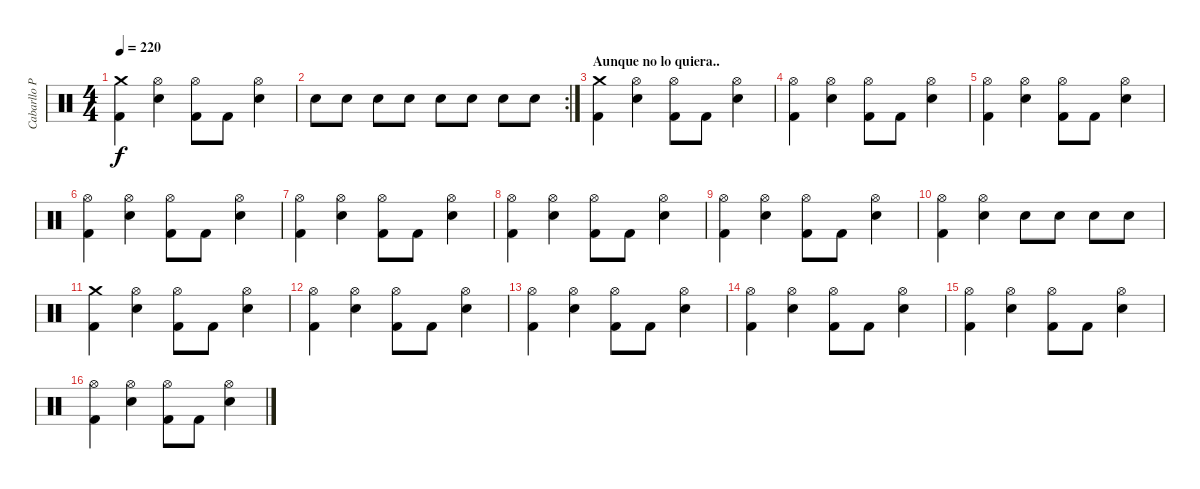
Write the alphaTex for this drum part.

\track ("Cabarllo Pepe" "Cabarllo P") {instrument percussion}
\staff {score}
\articulation defaults
\ts (4 4)
\tempo 220
\clef neutral
\ks c
("Crash medium (hit)" "Kick (hit) 2").4{dy f} ("Hi-Hat (open)" "Electric Snare (hit)").4 ("Hi-Hat (open)" "Kick (hit) 2").8 "Kick (hit) 2".8 ("Hi-Hat (open)" "Electric Snare (hit)").4 |
\rc 2 "Electric Snare (hit)".8 "Electric Snare (hit)".8 "Electric Snare (hit)".8 "Electric Snare (hit)".8 "Electric Snare (hit)".8 "Electric Snare (hit)".8 "Electric Snare (hit)".8 "Electric Snare (hit)".8
|
\section ("" "Aunque no lo quiera..")
("Crash medium (hit)" "Kick (hit) 2").4 ("Hi-Hat (open)" "Electric Snare (hit)").4 ("Hi-Hat (open)" "Kick (hit) 2").8 "Kick (hit) 2".8 ("Hi-Hat (open)" "Electric Snare (hit)").4 |
("Hi-Hat (open)" "Kick (hit) 2").4 ("Hi-Hat (open)" "Electric Snare (hit)").4 ("Hi-Hat (open)" "Kick (hit) 2").8 "Kick (hit) 2".8 ("Hi-Hat (open)" "Electric Snare (hit)").4 |
("Hi-Hat (open)" "Kick (hit) 2").4 ("Hi-Hat (open)" "Electric Snare (hit)").4 ("Hi-Hat (open)" "Kick (hit) 2").8 "Kick (hit) 2".8 ("Hi-Hat (open)" "Electric Snare (hit)").4 |
("Hi-Hat (open)" "Kick (hit) 2").4 ("Hi-Hat (open)" "Electric Snare (hit)").4 ("Hi-Hat (open)" "Kick (hit) 2").8 "Kick (hit) 2".8 ("Hi-Hat (open)" "Electric Snare (hit)").4 |
("Hi-Hat (open)" "Kick (hit) 2").4 ("Hi-Hat (open)" "Electric Snare (hit)").4 ("Hi-Hat (open)" "Kick (hit) 2").8 "Kick (hit) 2".8 ("Hi-Hat (open)" "Electric Snare (hit)").4 |
("Hi-Hat (open)" "Kick (hit) 2").4 ("Hi-Hat (open)" "Electric Snare (hit)").4 ("Hi-Hat (open)" "Kick (hit) 2").8 "Kick (hit) 2".8 ("Hi-Hat (open)" "Electric Snare (hit)").4 |
("Hi-Hat (open)" "Kick (hit) 2").4 ("Hi-Hat (open)" "Electric Snare (hit)").4 ("Hi-Hat (open)" "Kick (hit) 2").8 "Kick (hit) 2".8 ("Hi-Hat (open)" "Electric Snare (hit)").4 |
("Hi-Hat (open)" "Kick (hit) 2").4 ("Hi-Hat (open)" "Electric Snare (hit)").4 "Electric Snare (hit)".8 "Electric Snare (hit)".8 "Electric Snare (hit)".8 "Electric Snare (hit)".8 |
("Crash medium (hit)" "Kick (hit) 2").4 ("Hi-Hat (open)" "Electric Snare (hit)").4 ("Hi-Hat (open)" "Kick (hit) 2").8 "Kick (hit) 2".8 ("Hi-Hat (open)" "Electric Snare (hit)").4 |
("Hi-Hat (open)" "Kick (hit) 2").4 ("Hi-Hat (open)" "Electric Snare (hit)").4 ("Hi-Hat (open)" "Kick (hit) 2").8 "Kick (hit) 2".8 ("Hi-Hat (open)" "Electric Snare (hit)").4 |
("Hi-Hat (open)" "Kick (hit) 2").4 ("Hi-Hat (open)" "Electric Snare (hit)").4 ("Hi-Hat (open)" "Kick (hit) 2").8 "Kick (hit) 2".8 ("Hi-Hat (open)" "Electric Snare (hit)").4 |
("Hi-Hat (open)" "Kick (hit) 2").4 ("Hi-Hat (open)" "Electric Snare (hit)").4 ("Hi-Hat (open)" "Kick (hit) 2").8 "Kick (hit) 2".8 ("Hi-Hat (open)" "Electric Snare (hit)").4 |
("Hi-Hat (open)" "Kick (hit) 2").4 ("Hi-Hat (open)" "Electric Snare (hit)").4 ("Hi-Hat (open)" "Kick (hit) 2").8 "Kick (hit) 2".8 ("Hi-Hat (open)" "Electric Snare (hit)").4 |
("Hi-Hat (open)" "Kick (hit) 2").4 ("Hi-Hat (open)" "Electric Snare (hit)").4 ("Hi-Hat (open)" "Kick (hit) 2").8 "Kick (hit) 2".8 ("Hi-Hat (open)" "Electric Snare (hit)").4
